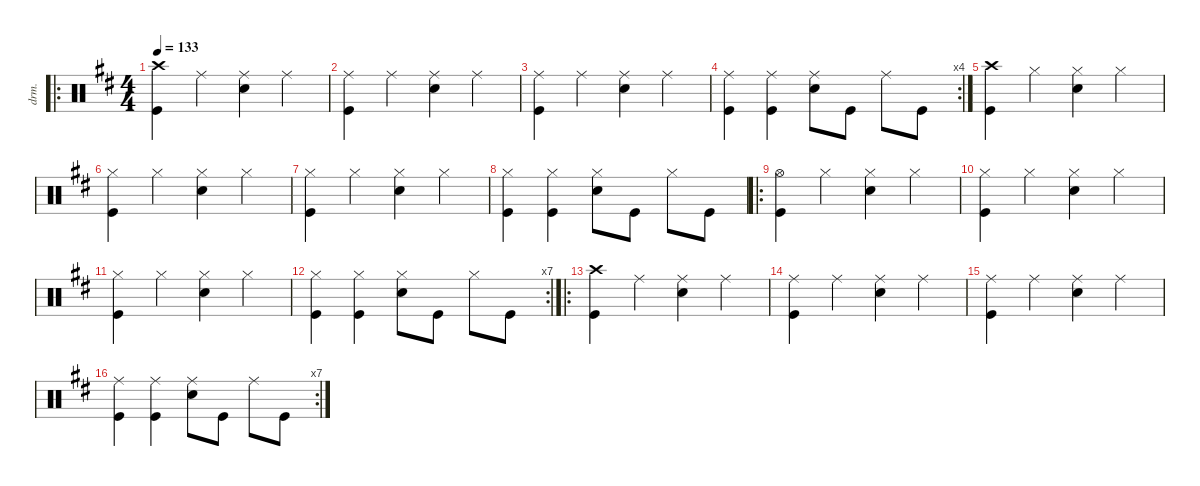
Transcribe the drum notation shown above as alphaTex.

\defaultSystemsLayout 4
\hideDynamics
\bracketExtendMode nobrackets
\otherSystemsTrackNameOrientation horizontal
\track ("Drums" "drm.") {defaultSystemsLayout 4 instrument percussion}
\staff {score}
\articulation defaults
\ro
\ts (4 4)
\tempo 133
\clef neutral
\ks bminor
("Crash high (hit)"{acc forcenatural} "Kick (hit)"{acc forcenatural}).4{dy f beam Down} "Ride (middle)"{acc forcenatural}.4{beam Down} ("Ride (middle)"{acc forcenatural} "Snare (hit) 2"{acc forcenatural}).4{beam Down} "Ride (middle)"{acc forcenatural}.4{beam Down} |
("Ride (middle)"{acc forcenatural} "Kick (hit)"{acc forcenatural}).4{beam Down} "Ride (middle)"{acc forcenatural}.4{beam Down} ("Ride (middle)"{acc forcenatural} "Snare (hit) 2"{acc forcenatural}).4{beam Down} "Ride (middle)"{acc forcenatural}.4{beam Down} |
("Ride (middle)"{acc forcenatural} "Kick (hit)"{acc forcenatural}).4{beam Down} "Ride (middle)"{acc forcenatural}.4{beam Down} ("Ride (middle)"{acc forcenatural} "Snare (hit) 2"{acc forcenatural}).4{beam Down} "Ride (middle)"{acc forcenatural}.4{beam Down} |
\rc 4
("Ride (middle)"{acc forcenatural} "Kick (hit)"{acc forcenatural}).4{beam Down} ("Ride (middle)"{acc forcenatural} "Kick (hit)"{acc forcenatural}).4{beam Down} ("Ride (middle)"{acc forcenatural} "Snare (hit) 2"{acc forcenatural}).8{beam Down} "Kick (hit)"{acc forcenatural}.8{beam Down} "Ride (middle)"{acc forcenatural}.8{beam Down} "Kick (hit)"{acc forcenatural}.8{beam Down} |
("Crash high (hit)"{acc forcenatural} "Kick (hit)"{acc forcenatural}).4{beam Down} "Hi-Hat (closed)"{acc forcenatural}.4{beam Down} ("Hi-Hat (closed)"{acc forcenatural} "Snare (hit) 2"{acc forcenatural}).4{beam Down} "Hi-Hat (closed)"{acc forcenatural}.4{beam Down} |
("Hi-Hat (closed)"{acc forcenatural} "Kick (hit)"{acc forcenatural}).4{beam Down} "Hi-Hat (closed)"{acc forcenatural}.4{beam Down} ("Hi-Hat (closed)"{acc forcenatural} "Snare (hit) 2"{acc forcenatural}).4{beam Down} "Hi-Hat (closed)"{acc forcenatural}.4{beam Down} |
("Hi-Hat (closed)"{acc forcenatural} "Kick (hit)"{acc forcenatural}).4{beam Down} "Hi-Hat (closed)"{acc forcenatural}.4{beam Down} ("Hi-Hat (closed)"{acc forcenatural} "Snare (hit) 2"{acc forcenatural}).4{beam Down} "Hi-Hat (closed)"{acc forcenatural}.4{beam Down} |
("Hi-Hat (closed)"{acc forcenatural} "Kick (hit)"{acc forcenatural}).4{beam Down} ("Hi-Hat (closed)"{acc forcenatural} "Kick (hit)"{acc forcenatural}).4{beam Down} ("Hi-Hat (closed)"{acc forcenatural} "Snare (hit) 2"{acc forcenatural}).8{beam Down} "Kick (hit)"{acc forcenatural}.8{beam Down} "Hi-Hat (closed)"{acc forcenatural}.8{beam Down} "Kick (hit)"{acc forcenatural}.8{beam Down} |
\ro
("Hi-Hat (open)"{acc forcenatural} "Kick (hit)"{acc forcenatural}).4{beam Down} "Hi-Hat (closed)"{acc forcenatural}.4{beam Down} ("Hi-Hat (closed)"{acc forcenatural} "Snare (hit) 2"{acc forcenatural}).4{beam Down} "Hi-Hat (closed)"{acc forcenatural}.4{beam Down} |
("Hi-Hat (closed)"{acc forcenatural} "Kick (hit)"{acc forcenatural}).4{beam Down} "Hi-Hat (closed)"{acc forcenatural}.4{beam Down} ("Hi-Hat (closed)"{acc forcenatural} "Snare (hit) 2"{acc forcenatural}).4{beam Down} "Hi-Hat (closed)"{acc forcenatural}.4{beam Down} |
("Hi-Hat (closed)"{acc forcenatural} "Kick (hit)"{acc forcenatural}).4{beam Down} "Hi-Hat (closed)"{acc forcenatural}.4{beam Down} ("Hi-Hat (closed)"{acc forcenatural} "Snare (hit) 2"{acc forcenatural}).4{beam Down} "Hi-Hat (closed)"{acc forcenatural}.4{beam Down} |
\rc 7
("Hi-Hat (closed)"{acc forcenatural} "Kick (hit)"{acc forcenatural}).4{beam Down} ("Hi-Hat (closed)"{acc forcenatural} "Kick (hit)"{acc forcenatural}).4{beam Down} ("Hi-Hat (closed)"{acc forcenatural} "Snare (hit) 2"{acc forcenatural}).8{beam Down} "Kick (hit)"{acc forcenatural}.8{beam Down} "Hi-Hat (closed)"{acc forcenatural}.8{beam Down} "Kick (hit)"{acc forcenatural}.8{beam Down} |
\ro
("Crash high (hit)"{acc forcenatural} "Kick (hit)"{acc forcenatural}).4{beam Down} "Ride (middle)"{acc forcenatural}.4{beam Down} ("Ride (middle)"{acc forcenatural} "Snare (hit) 2"{acc forcenatural}).4{beam Down} "Ride (middle)"{acc forcenatural}.4{beam Down} |
("Ride (middle)"{acc forcenatural} "Kick (hit)"{acc forcenatural}).4{beam Down} "Ride (middle)"{acc forcenatural}.4{beam Down} ("Ride (middle)"{acc forcenatural} "Snare (hit) 2"{acc forcenatural}).4{beam Down} "Ride (middle)"{acc forcenatural}.4{beam Down} |
("Ride (middle)"{acc forcenatural} "Kick (hit)"{acc forcenatural}).4{beam Down} "Ride (middle)"{acc forcenatural}.4{beam Down} ("Ride (middle)"{acc forcenatural} "Snare (hit) 2"{acc forcenatural}).4{beam Down} "Ride (middle)"{acc forcenatural}.4{beam Down} |
\rc 7
("Ride (middle)"{acc forcenatural} "Kick (hit)"{acc forcenatural}).4{beam Down} ("Ride (middle)"{acc forcenatural} "Kick (hit)"{acc forcenatural}).4{beam Down} ("Ride (middle)"{acc forcenatural} "Snare (hit) 2"{acc forcenatural}).8{beam Down} "Kick (hit)"{acc forcenatural}.8{beam Down} "Ride (middle)"{acc forcenatural}.8{beam Down} "Kick (hit)"{acc forcenatural}.8{beam Down}
